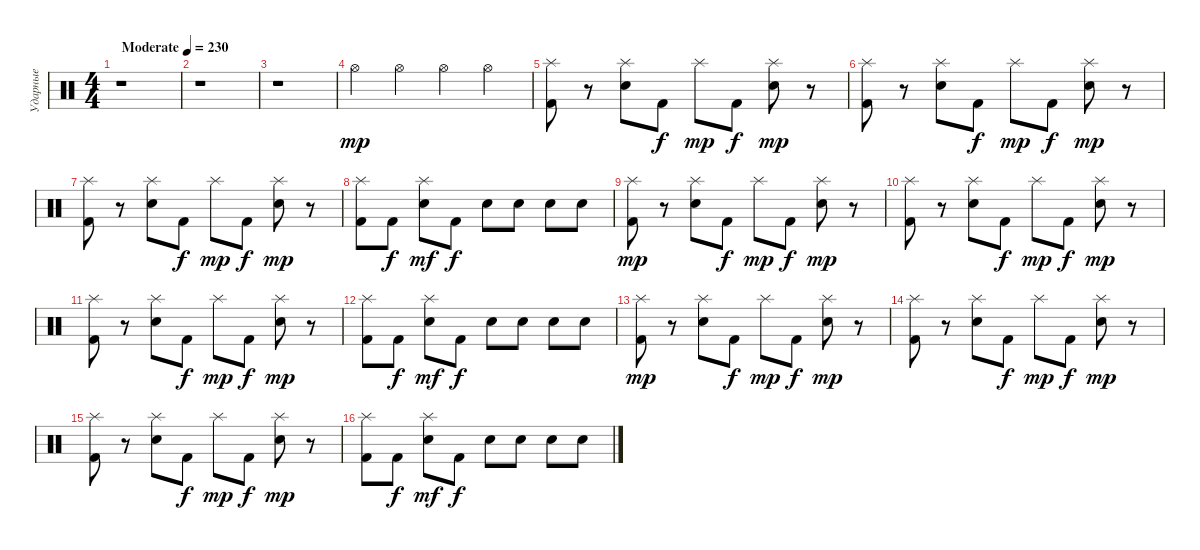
\track ("Ударные" "Ударные") {instrument percussion}
\staff {score}
\articulation defaults
\ts (4 4)
\tempo (230 "Moderate")
\clef neutral
\ks c
r.1{dy mp} |
r.1 |
r.1 |
"Hi-Hat (open)".4 "Hi-Hat (open)".4 "Hi-Hat (open)".4 "Hi-Hat (open)".4 |
("Splash (hit)" "Kick (hit) 2").8 r.8 ("Splash (hit)" "Snare (hit) 2").8 "Kick (hit) 2".8{dy f} "Splash (hit)".8{dy mp} "Kick (hit) 2".8{dy f} ("Splash (hit)" "Snare (hit) 2").8{dy mp} r.8 |
("Splash (hit)" "Kick (hit) 2").8 r.8 ("Splash (hit)" "Snare (hit) 2").8 "Kick (hit) 2".8{dy f} "Splash (hit)".8{dy mp} "Kick (hit) 2".8{dy f} ("Splash (hit)" "Snare (hit) 2").8{dy mp} r.8 |
("Splash (hit)" "Kick (hit) 2").8 r.8 ("Splash (hit)" "Snare (hit) 2").8 "Kick (hit) 2".8{dy f} "Splash (hit)".8{dy mp} "Kick (hit) 2".8{dy f} ("Splash (hit)" "Snare (hit) 2").8{dy mp} r.8 |
("Splash (hit)" "Kick (hit) 2").8 "Kick (hit) 2".8{dy f} ("Splash (hit)" "Snare (hit) 2").8{dy mf} "Kick (hit) 2".8{dy f} "Snare (hit) 2".8 "Snare (hit) 2".8 "Snare (hit) 2".8 "Snare (hit) 2".8 |
("Splash (hit)" "Kick (hit) 2").8{dy mp} r.8 ("Splash (hit)" "Snare (hit) 2").8 "Kick (hit) 2".8{dy f} "Splash (hit)".8{dy mp} "Kick (hit) 2".8{dy f} ("Splash (hit)" "Snare (hit) 2").8{dy mp} r.8 |
("Splash (hit)" "Kick (hit) 2").8 r.8 ("Splash (hit)" "Snare (hit) 2").8 "Kick (hit) 2".8{dy f} "Splash (hit)".8{dy mp} "Kick (hit) 2".8{dy f} ("Splash (hit)" "Snare (hit) 2").8{dy mp} r.8 |
("Splash (hit)" "Kick (hit) 2").8 r.8 ("Splash (hit)" "Snare (hit) 2").8 "Kick (hit) 2".8{dy f} "Splash (hit)".8{dy mp} "Kick (hit) 2".8{dy f} ("Splash (hit)" "Snare (hit) 2").8{dy mp} r.8 |
("Splash (hit)" "Kick (hit) 2").8 "Kick (hit) 2".8{dy f} ("Splash (hit)" "Snare (hit) 2").8{dy mf} "Kick (hit) 2".8{dy f} "Snare (hit) 2".8 "Snare (hit) 2".8 "Snare (hit) 2".8 "Snare (hit) 2".8 |
("Splash (hit)" "Kick (hit) 2").8{dy mp} r.8 ("Splash (hit)" "Snare (hit) 2").8 "Kick (hit) 2".8{dy f} "Splash (hit)".8{dy mp} "Kick (hit) 2".8{dy f} ("Splash (hit)" "Snare (hit) 2").8{dy mp} r.8 |
("Splash (hit)" "Kick (hit) 2").8 r.8 ("Splash (hit)" "Snare (hit) 2").8 "Kick (hit) 2".8{dy f} "Splash (hit)".8{dy mp} "Kick (hit) 2".8{dy f} ("Splash (hit)" "Snare (hit) 2").8{dy mp} r.8 |
("Splash (hit)" "Kick (hit) 2").8 r.8 ("Splash (hit)" "Snare (hit) 2").8 "Kick (hit) 2".8{dy f} "Splash (hit)".8{dy mp} "Kick (hit) 2".8{dy f} ("Splash (hit)" "Snare (hit) 2").8{dy mp} r.8 |
("Splash (hit)" "Kick (hit) 2").8 "Kick (hit) 2".8{dy f} ("Splash (hit)" "Snare (hit) 2").8{dy mf} "Kick (hit) 2".8{dy f} "Snare (hit) 2".8 "Snare (hit) 2".8 "Snare (hit) 2".8 "Snare (hit) 2".8
